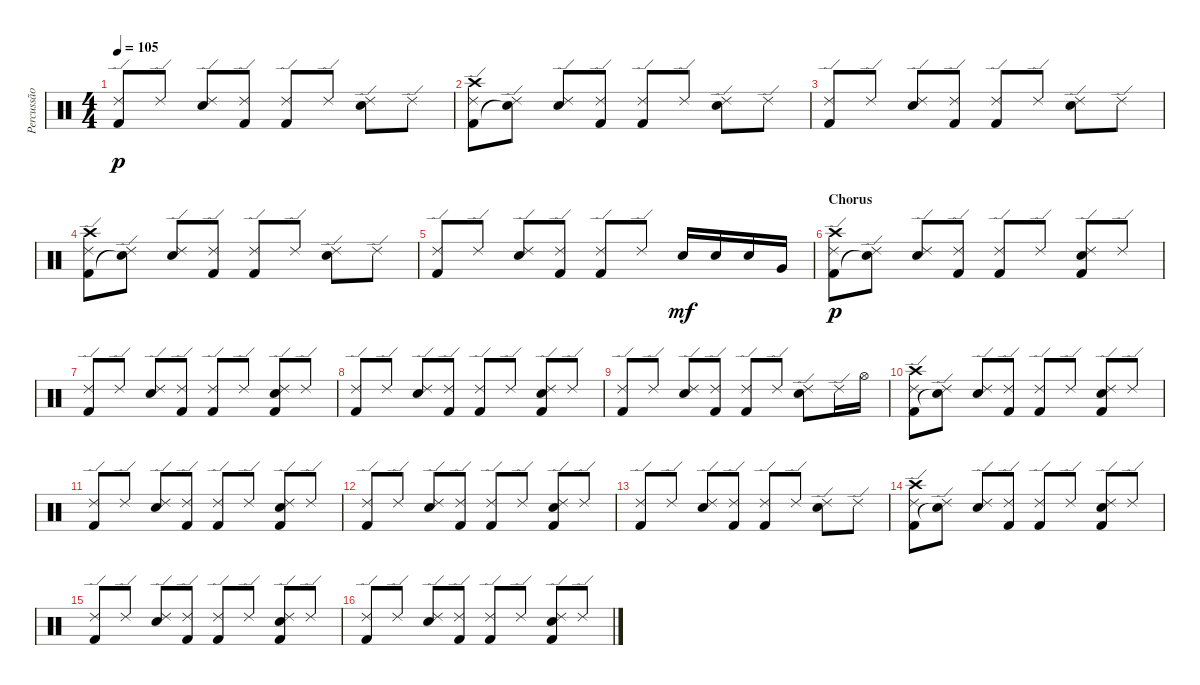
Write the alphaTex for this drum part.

\track ("Percussão" "Percussão") {instrument percussion}
\staff {score}
\articulation defaults
\ts (4 4)
\tempo 105
\clef neutral
\ks c
("Kick (hit) 2" "Ride (edge) 2").8{dy p} "Ride (edge) 2".8 ("Ride (edge) 2" "Electric Snare (hit)").8 ("Kick (hit) 2" "Ride (edge) 2").8 ("Kick (hit) 2" "Ride (edge) 2").8 "Ride (edge) 2".8 ("Ride (edge) 2" "Electric Snare (hit)").8 "Ride (edge) 2".8 |
("Kick (hit) 2" "Crash high (hit)" "Ride (edge) 2").8 ("Snare (hit)"{t} "Ride (edge) 2").8 ("Ride (edge) 2" "Electric Snare (hit)").8 ("Kick (hit) 2" "Ride (edge) 2").8 ("Kick (hit) 2" "Ride (edge) 2").8 "Ride (edge) 2".8 ("Ride (edge) 2" "Electric Snare (hit)").8 "Ride (edge) 2".8 |
("Kick (hit) 2" "Ride (edge) 2").8 "Ride (edge) 2".8 ("Ride (edge) 2" "Electric Snare (hit)").8 ("Kick (hit) 2" "Ride (edge) 2").8 ("Kick (hit) 2" "Ride (edge) 2").8 "Ride (edge) 2".8 ("Ride (edge) 2" "Electric Snare (hit)").8 "Ride (edge) 2".8 |
("Kick (hit) 2" "Crash high (hit)" "Ride (edge) 2").8 ("Snare (hit)"{t} "Ride (edge) 2").8 ("Ride (edge) 2" "Electric Snare (hit)").8 ("Kick (hit) 2" "Ride (edge) 2").8 ("Kick (hit) 2" "Ride (edge) 2").8 "Ride (edge) 2".8 ("Ride (edge) 2" "Electric Snare (hit)").8 "Ride (edge) 2".8 |
("Kick (hit) 2" "Ride (edge) 2").8 "Ride (edge) 2".8 ("Ride (edge) 2" "Electric Snare (hit)").8 ("Kick (hit) 2" "Ride (edge) 2").8 ("Kick (hit) 2" "Ride (edge) 2").8 "Ride (edge) 2".8 "Snare (hit) 2".16{dy mf} "Snare (hit) 2".16 "Electric Snare (hit)".16 "Very Low Tom (hit)".16 |
\section ("" "Chorus")
("Kick (hit) 2" "Crash high (hit)" "Ride (edge) 2").8{dy p} ("Snare (hit)"{t} "Ride (edge) 2").8 ("Ride (edge) 2" "Electric Snare (hit)").8 ("Kick (hit) 2" "Ride (edge) 2").8 ("Kick (hit) 2" "Ride (edge) 2").8 "Ride (edge) 2".8 ("Kick (hit) 2" "Ride (edge) 2" "Electric Snare (hit)").8 "Ride (edge) 2".8 |
("Kick (hit) 2" "Ride (edge) 2").8 "Ride (edge) 2".8 ("Ride (edge) 2" "Electric Snare (hit)").8 ("Kick (hit) 2" "Ride (edge) 2").8 ("Kick (hit) 2" "Ride (edge) 2").8 "Ride (edge) 2".8 ("Kick (hit) 2" "Ride (edge) 2" "Electric Snare (hit)").8 "Ride (edge) 2".8 |
("Kick (hit) 2" "Ride (edge) 2").8 "Ride (edge) 2".8 ("Ride (edge) 2" "Electric Snare (hit)").8 ("Kick (hit) 2" "Ride (edge) 2").8 ("Kick (hit) 2" "Ride (edge) 2").8 "Ride (edge) 2".8 ("Kick (hit) 2" "Ride (edge) 2" "Electric Snare (hit)").8 "Ride (edge) 2".8 |
("Kick (hit) 2" "Ride (edge) 2").8 "Ride (edge) 2".8 ("Ride (edge) 2" "Electric Snare (hit)").8 ("Kick (hit) 2" "Ride (edge) 2").8 ("Kick (hit) 2" "Ride (edge) 2").8 "Ride (edge) 2".8 ("Ride (edge) 2" "Electric Snare (hit)").8 "Ride (edge) 2".16 "Hi-Hat (open)".16 |
("Kick (hit) 2" "Crash high (hit)" "Ride (edge) 2").8 ("Snare (hit)"{t} "Ride (edge) 2").8 ("Ride (edge) 2" "Electric Snare (hit)").8 ("Kick (hit) 2" "Ride (edge) 2").8 ("Kick (hit) 2" "Ride (edge) 2").8 "Ride (edge) 2".8 ("Kick (hit) 2" "Ride (edge) 2" "Electric Snare (hit)").8 "Ride (edge) 2".8 |
("Kick (hit) 2" "Ride (edge) 2").8 "Ride (edge) 2".8 ("Ride (edge) 2" "Electric Snare (hit)").8 ("Kick (hit) 2" "Ride (edge) 2").8 ("Kick (hit) 2" "Ride (edge) 2").8 "Ride (edge) 2".8 ("Kick (hit) 2" "Ride (edge) 2" "Electric Snare (hit)").8 "Ride (edge) 2".8 |
("Kick (hit) 2" "Ride (edge) 2").8 "Ride (edge) 2".8 ("Ride (edge) 2" "Electric Snare (hit)").8 ("Kick (hit) 2" "Ride (edge) 2").8 ("Kick (hit) 2" "Ride (edge) 2").8 "Ride (edge) 2".8 ("Kick (hit) 2" "Ride (edge) 2" "Electric Snare (hit)").8 "Ride (edge) 2".8 |
("Kick (hit) 2" "Ride (edge) 2").8 "Ride (edge) 2".8 ("Ride (edge) 2" "Electric Snare (hit)").8 ("Kick (hit) 2" "Ride (edge) 2").8 ("Kick (hit) 2" "Ride (edge) 2").8 "Ride (edge) 2".8 ("Ride (edge) 2" "Electric Snare (hit)").8 "Ride (edge) 2".8 |
("Kick (hit) 2" "Crash high (hit)" "Ride (edge) 2").8 ("Snare (hit)"{t} "Ride (edge) 2").8 ("Ride (edge) 2" "Electric Snare (hit)").8 ("Kick (hit) 2" "Ride (edge) 2").8 ("Kick (hit) 2" "Ride (edge) 2").8 "Ride (edge) 2".8 ("Kick (hit) 2" "Ride (edge) 2" "Electric Snare (hit)").8 "Ride (edge) 2".8 |
("Kick (hit) 2" "Ride (edge) 2").8 "Ride (edge) 2".8 ("Ride (edge) 2" "Electric Snare (hit)").8 ("Kick (hit) 2" "Ride (edge) 2").8 ("Kick (hit) 2" "Ride (edge) 2").8 "Ride (edge) 2".8 ("Kick (hit) 2" "Ride (edge) 2" "Electric Snare (hit)").8 "Ride (edge) 2".8 |
("Kick (hit) 2" "Ride (edge) 2").8 "Ride (edge) 2".8 ("Ride (edge) 2" "Electric Snare (hit)").8 ("Kick (hit) 2" "Ride (edge) 2").8 ("Kick (hit) 2" "Ride (edge) 2").8 "Ride (edge) 2".8 ("Kick (hit) 2" "Ride (edge) 2" "Electric Snare (hit)").8 "Ride (edge) 2".8
